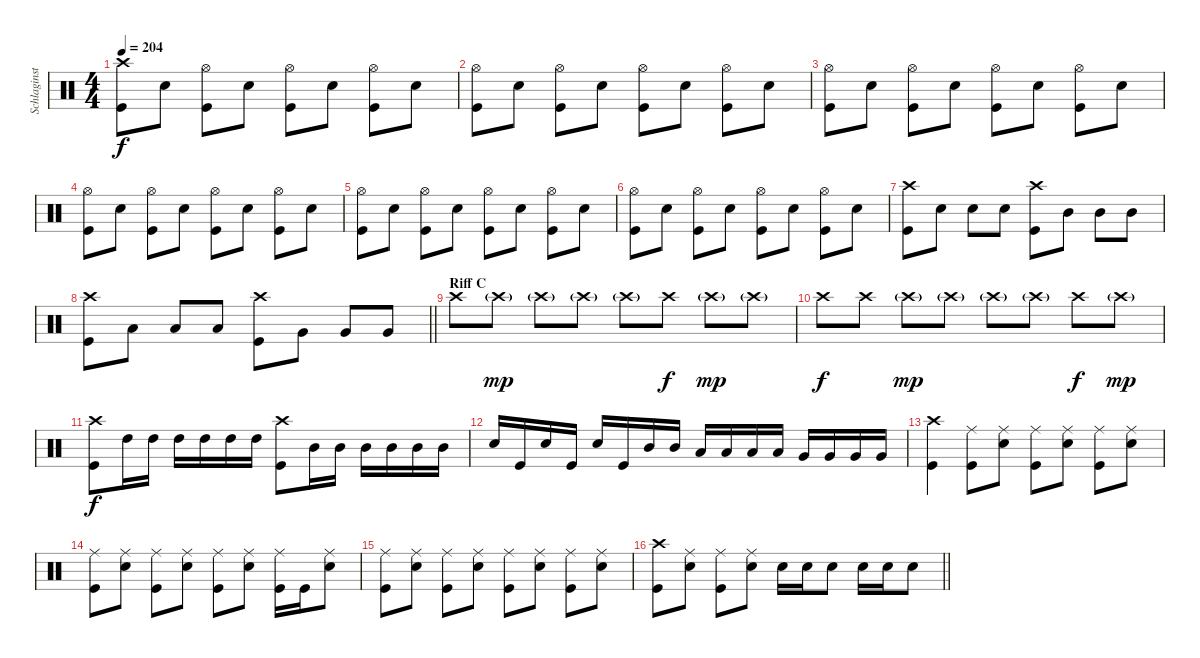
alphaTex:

\track ("Schlaginstrumente - Auswahl" "Schlaginst") {instrument percussion}
\staff {score}
\articulation defaults
\ts (4 4)
\tempo 204
\clef neutral
\ks c
("Kick (hit)" "Crash high (hit)").8{dy f} "Snare (hit) 2".8 ("Kick (hit)" "Hi-Hat (open)").8 "Snare (hit) 2".8 ("Kick (hit)" "Hi-Hat (open)").8 "Snare (hit) 2".8 ("Kick (hit)" "Hi-Hat (open)").8 "Snare (hit) 2".8 |
("Kick (hit)" "Hi-Hat (open)").8 "Snare (hit) 2".8 ("Kick (hit)" "Hi-Hat (open)").8 "Snare (hit) 2".8 ("Kick (hit)" "Hi-Hat (open)").8 "Snare (hit) 2".8 ("Kick (hit)" "Hi-Hat (open)").8 "Snare (hit) 2".8 |
("Kick (hit)" "Hi-Hat (open)").8 "Snare (hit) 2".8 ("Kick (hit)" "Hi-Hat (open)").8 "Snare (hit) 2".8 ("Kick (hit)" "Hi-Hat (open)").8 "Snare (hit) 2".8 ("Kick (hit)" "Hi-Hat (open)").8 "Snare (hit) 2".8 |
("Kick (hit)" "Hi-Hat (open)").8 "Snare (hit) 2".8 ("Kick (hit)" "Hi-Hat (open)").8 "Snare (hit) 2".8 ("Kick (hit)" "Hi-Hat (open)").8 "Snare (hit) 2".8 ("Kick (hit)" "Hi-Hat (open)").8 "Snare (hit) 2".8 |
("Kick (hit)" "Hi-Hat (open)").8 "Snare (hit) 2".8 ("Kick (hit)" "Hi-Hat (open)").8 "Snare (hit) 2".8 ("Kick (hit)" "Hi-Hat (open)").8 "Snare (hit) 2".8 ("Kick (hit)" "Hi-Hat (open)").8 "Snare (hit) 2".8 |
("Kick (hit)" "Hi-Hat (open)").8 "Snare (hit) 2".8 ("Kick (hit)" "Hi-Hat (open)").8 "Snare (hit) 2".8 ("Kick (hit)" "Hi-Hat (open)").8 "Snare (hit) 2".8 ("Kick (hit)" "Hi-Hat (open)").8 "Snare (hit) 2".8 |
("Kick (hit)" "Crash high (hit)").8 "Snare (hit) 2".8 "Snare (hit) 2".8 "Snare (hit) 2".8 ("Kick (hit)" "Crash high (hit)").8 "Mid Tom (hit)".8 "Mid Tom (hit)".8 "Mid Tom (hit)".8 |
\barLineRight lightlight
("Kick (hit)" "Crash high (hit)").8 "Low Tom (hit)".8 "Low Tom (hit)".8 "Low Tom (hit)".8 ("Kick (hit)" "Crash high (hit)").8 "Very Low Tom (hit)".8 "Very Low Tom (hit)".8 "Very Low Tom (hit)".8 |
\section ("" "Riff C")
"Crash high (hit)".8 "Crash high (hit)"{g}.8{dy mp} "Crash high (hit)"{g}.8 "Crash high (hit)"{g}.8 "Crash high (hit)"{g}.8 "Crash high (hit)".8{dy f} "Crash high (hit)"{g}.8{dy mp} "Crash high (hit)"{g}.8 |
"Crash high (hit)".8{dy f} "Crash high (hit)".8 "Crash high (hit)"{g}.8{dy mp} "Crash high (hit)"{g}.8 "Crash high (hit)"{g}.8 "Crash high (hit)"{g}.8 "Crash high (hit)".8{dy f} "Crash high (hit)"{g}.8{dy mp} |
("Kick (hit)" "Crash high (hit)").8{dy f} "High Tom (hit)".16 "High Tom (hit)".16 "High Tom (hit)".16 "High Tom (hit)".16 "High Tom (hit)".16 "High Tom (hit)".16 ("Kick (hit)" "Crash high (hit)").8 "Mid Tom (hit)".16 "Mid Tom (hit)".16 "Mid Tom (hit)".16 "Mid Tom (hit)".16 "Mid Tom (hit)".16 "Mid Tom (hit)".16 |
"Snare (hit) 2".16 "Kick (hit)".16 "Snare (hit) 2".16 "Kick (hit)".16 "Snare (hit) 2".16 "Kick (hit)".16 "Mid Tom (hit)".16 "Mid Tom (hit)".16 "Low Tom (hit)".16 "Low Tom (hit)".16 "Low Tom (hit)".16 "Low Tom (hit)".16 "Very Low Tom (hit)".16 "Very Low Tom (hit)".16 "Very Low Tom (hit)".16 "Very Low Tom (hit)".16 |
("Kick (hit)" "Crash high (hit)").4 ("Kick (hit)" "Ride (middle)").8 ("Snare (hit) 2" "Ride (middle)").8 ("Kick (hit)" "Ride (middle)").8 ("Snare (hit) 2" "Ride (middle)").8 ("Kick (hit)" "Ride (middle)").8 ("Snare (hit) 2" "Ride (middle)").8 |
("Kick (hit)" "Ride (middle)").8 ("Snare (hit) 2" "Ride (middle)").8 ("Kick (hit)" "Ride (middle)").8 ("Snare (hit) 2" "Ride (middle)").8 ("Kick (hit)" "Ride (middle)").8 ("Snare (hit) 2" "Ride (middle)").8 ("Ride (middle)" "Kick (hit)").16 "Kick (hit)".16 ("Snare (hit) 2" "Ride (middle)").8 |
("Kick (hit)" "Ride (middle)").8 ("Snare (hit) 2" "Ride (middle)").8 ("Kick (hit)" "Ride (middle)").8 ("Snare (hit) 2" "Ride (middle)").8 ("Kick (hit)" "Ride (middle)").8 ("Snare (hit) 2" "Ride (middle)").8 ("Kick (hit)" "Ride (middle)").8 ("Snare (hit) 2" "Ride (middle)").8 |
\barLineRight lightlight
("Kick (hit)" "Crash high (hit)").8 ("Snare (hit) 2" "Ride (middle)").8 ("Kick (hit)" "Ride (middle)").8 ("Snare (hit) 2" "Ride (middle)").8 "Snare (hit) 2".16 "Snare (hit) 2".16 "Snare (hit) 2".8 "Snare (hit) 2".16 "Snare (hit) 2".16 "Snare (hit) 2".8
